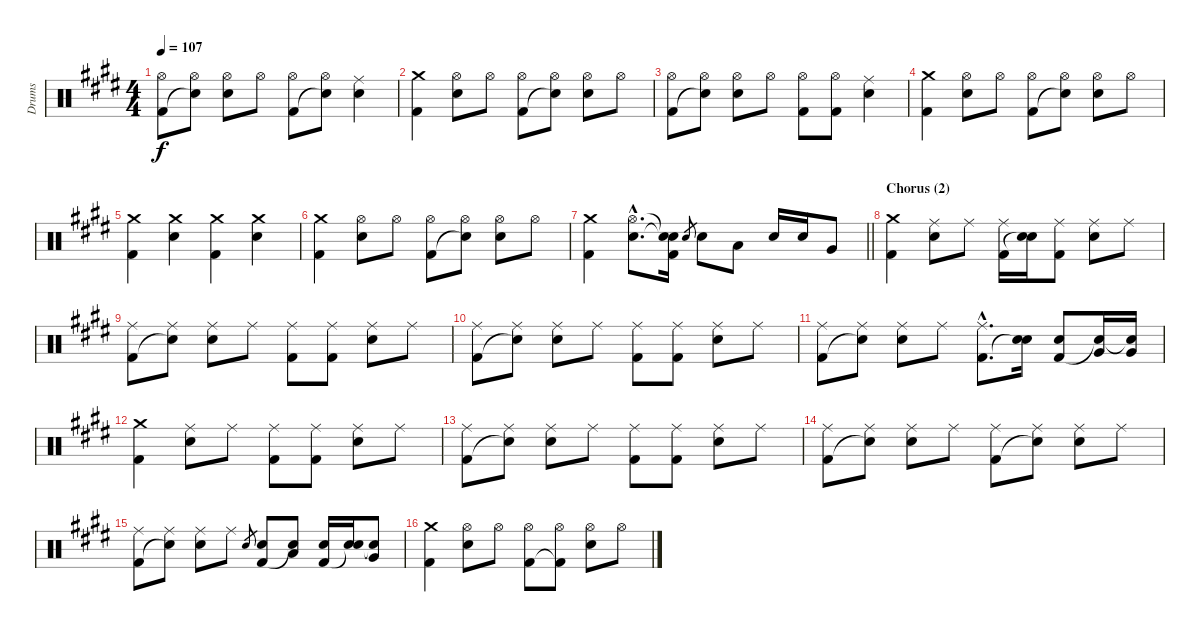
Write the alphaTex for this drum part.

\track ("Drums" "Drums") {instrument percussion}
\staff {score}
\articulation defaults
\ts (4 4)
\tempo 107
\clef neutral
\ks e
("Hi-Hat (open)" "Kick (hit) 2").8{dy f} ("Hi-Hat (open)" "Snare (hit)"{t}).8 ("Hi-Hat (open)" "Electric Snare (hit)").8 "Hi-Hat (open)".8 ("Hi-Hat (open)" "Kick (hit) 2").8 ("Hi-Hat (open)" "Snare (hit)"{t}).8 ("Ride (middle)" "Electric Snare (hit)").4 |
("Crash medium (hit)" "Kick (hit) 2").4 ("Hi-Hat (open)" "Electric Snare (hit)").8 "Hi-Hat (open)".8 ("Hi-Hat (open)" "Kick (hit) 2").8 ("Hi-Hat (open)" "Snare (hit)"{t}).8 ("Hi-Hat (open)" "Electric Snare (hit)").8 "Hi-Hat (open)".8 |
("Hi-Hat (open)" "Kick (hit) 2").8 ("Hi-Hat (open)" "Snare (hit)"{t}).8 ("Hi-Hat (open)" "Electric Snare (hit)").8 "Hi-Hat (open)".8 ("Hi-Hat (open)" "Kick (hit) 2").8 ("Hi-Hat (open)" "Kick (hit) 2").8 ("Ride (middle)" "Electric Snare (hit)").4 |
("Crash medium (hit)" "Kick (hit) 2").4 ("Hi-Hat (open)" "Electric Snare (hit)").8 "Hi-Hat (open)".8 ("Hi-Hat (open)" "Kick (hit) 2").8 ("Hi-Hat (open)" "Snare (hit)"{t}).8 ("Hi-Hat (open)" "Electric Snare (hit)").8 "Hi-Hat (open)".8 |
("Crash medium (hit)" "Kick (hit) 2").4 ("Crash medium (hit)" "Electric Snare (hit)").4 ("Crash medium (hit)" "Kick (hit) 2").4 ("Crash medium (hit)" "Electric Snare (hit)").4 |
("Crash medium (hit)" "Kick (hit) 2").4 ("Hi-Hat (open)" "Electric Snare (hit)").8 "Hi-Hat (open)".8 ("Hi-Hat (open)" "Kick (hit) 2").8 ("Hi-Hat (open)" "Snare (hit)"{t}).8 ("Hi-Hat (open)" "Electric Snare (hit)").8 "Hi-Hat (open)".8 |
\barLineRight lightlight
("Crash medium (hit)" "Kick (hit) 2").4 ("Hi-Hat (open)"{hac} "Electric Snare (hit)"{hac}).8{d} ("Snare (hit)"{t} "Snare (hit)"{t} "Kick (hit) 2").16 "Electric Snare (hit)".8{gr} "Electric Snare (hit)".8 "Low Tom (hit)".8 "Electric Snare (hit)".16 "Electric Snare (hit)".16 "Very Low Tom (hit)".8 |
\section ("" "Chorus (2)")
("Crash medium (hit)" "Kick (hit) 2").4 ("Ride (middle)" "Electric Snare (hit)").8 "Ride (middle)".8 ("Ride (middle)" "Kick (hit) 2").16 ("Electric Snare (hit)" "Snare (hit)"{t}).16 ("Ride (middle)" "Kick (hit) 2").8 ("Ride (middle)" "Electric Snare (hit)").8 "Ride (middle)".8 |
("Ride (middle)" "Kick (hit) 2").8 ("Ride (middle)" "Snare (hit)"{t}).8 ("Ride (middle)" "Electric Snare (hit)").8 "Ride (middle)".8 ("Ride (middle)" "Kick (hit) 2").8 ("Ride (middle)" "Kick (hit) 2").8 ("Ride (middle)" "Electric Snare (hit)").8 "Ride (middle)".8 |
("Ride (middle)" "Kick (hit) 2").8 ("Ride (middle)" "Snare (hit)"{t}).8 ("Ride (middle)" "Electric Snare (hit)").8 "Ride (middle)".8 ("Ride (middle)" "Kick (hit) 2").8 ("Ride (middle)" "Kick (hit) 2").8 ("Ride (middle)" "Electric Snare (hit)").8 "Ride (middle)".8 |
("Ride (middle)" "Kick (hit) 2").8 ("Ride (middle)" "Snare (hit)"{t}).8 ("Ride (middle)" "Electric Snare (hit)").8 "Ride (middle)".8 ("Ride (middle)"{hac} "Kick (hit) 2"{hac}).8{d} ("Electric Snare (hit)" "Snare (hit)"{t}).16 ("Electric Snare (hit)" "Kick (hit) 2").8 ("Very Low Tom (hit)" "Snare (hit)"{t}).16 ("Very Low Tom (hit)" "Snare (hit)"{t}).16 |
("Crash medium (hit)" "Kick (hit) 2").4 ("Ride (middle)" "Electric Snare (hit)").8 "Ride (middle)".8 ("Ride (middle)" "Kick (hit) 2").8 ("Ride (middle)" "Kick (hit) 2").8 ("Ride (middle)" "Electric Snare (hit)").8 "Ride (middle)".8 |
("Ride (middle)" "Kick (hit) 2").8 ("Ride (middle)" "Snare (hit)"{t}).8 ("Ride (middle)" "Electric Snare (hit)").8 "Ride (middle)".8 ("Ride (middle)" "Kick (hit) 2").8 ("Ride (middle)" "Kick (hit) 2").8 ("Ride (middle)" "Electric Snare (hit)").8 "Ride (middle)".8 |
("Ride (middle)" "Kick (hit) 2").8 ("Ride (middle)" "Snare (hit)"{t}).8 ("Ride (middle)" "Electric Snare (hit)").8 "Ride (middle)".8 ("Ride (middle)" "Kick (hit) 2").8 ("Ride (middle)" "Snare (hit)"{t}).8 ("Ride (middle)" "Electric Snare (hit)").8 "Ride (middle)".8 |
("Ride (middle)" "Kick (hit) 2").8 ("Ride (middle)" "Snare (hit)"{t}).8 ("Ride (middle)" "Electric Snare (hit)").8 "Ride (middle)".8 "Electric Snare (hit)".8{gr} ("Electric Snare (hit)" "Kick (hit) 2").8 ("Low Tom (hit)" "Snare (hit)"{t}).8 ("Electric Snare (hit)" "Kick (hit) 2").16 ("Electric Snare (hit)" "Snare (hit)"{t}).16 ("Very Low Tom (hit)" "Snare (hit)"{t}).8 |
("Crash medium (hit)" "Kick (hit) 2").4 ("Hi-Hat (open)" "Electric Snare (hit)").8 "Hi-Hat (open)".8 ("Hi-Hat (open)" "Kick (hit) 2").8 ("Hi-Hat (open)" "Kick (hit) 2"{t}).8 ("Hi-Hat (open)" "Electric Snare (hit)").8 "Hi-Hat (open)".8
